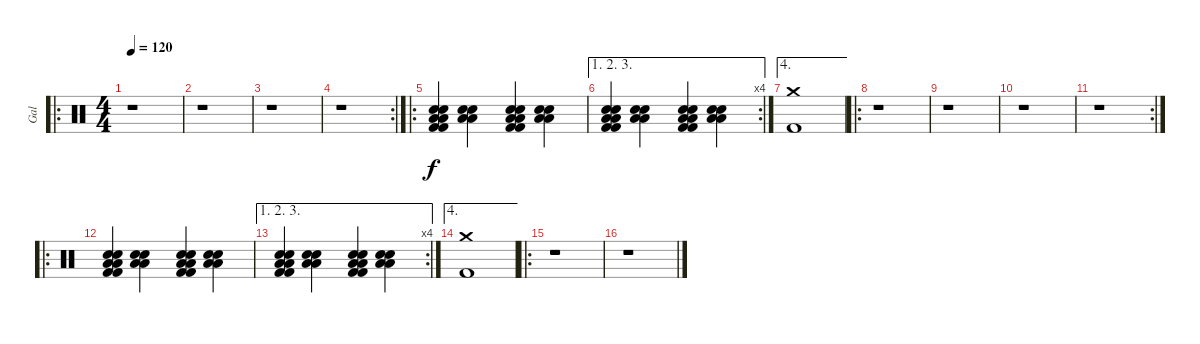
\track ("Gal" "Gal") {instrument percussion}
\staff {score}
\articulation defaults
\ro
\ts (4 4)
\tempo 120
\clef neutral
\ks c
r.1{dy f} |
r.1 |
r.1 |
\rc 2
r.1 |
\ro
("Low Floor Tom (hit)" "Low Floor Tom (hit)" "Snare (hit) 2" "Snare (hit) 2" "Kick (hit) 2" "Kick (hit) 2").4 ("Low Floor Tom (hit)" "Low Floor Tom (hit)" "Snare (hit) 2" "Snare (hit) 2").4 ("Low Floor Tom (hit)" "Low Floor Tom (hit)" "Snare (hit) 2" "Snare (hit) 2" "Kick (hit) 2" "Kick (hit) 2").4 ("Low Floor Tom (hit)" "Low Floor Tom (hit)" "Snare (hit) 2" "Snare (hit) 2").4 |
\ae (1 2 3)
\rc 4
("Low Floor Tom (hit)" "Low Floor Tom (hit)" "Snare (hit) 2" "Snare (hit) 2" "Kick (hit) 2" "Kick (hit) 2").4 ("Low Floor Tom (hit)" "Low Floor Tom (hit)" "Snare (hit) 2" "Snare (hit) 2").4 ("Low Floor Tom (hit)" "Low Floor Tom (hit)" "Snare (hit) 2" "Snare (hit) 2" "Kick (hit) 2" "Kick (hit) 2").4 ("Low Floor Tom (hit)" "Low Floor Tom (hit)" "Snare (hit) 2" "Snare (hit) 2").4 |
\ae 4
("Crash medium (hit)" "Kick (hit) 2").1 |
\ro
r.1 |
r.1 |
r.1 |
\rc 2
r.1 |
\ro
("Low Floor Tom (hit)" "Low Floor Tom (hit)" "Snare (hit) 2" "Snare (hit) 2" "Kick (hit) 2" "Kick (hit) 2").4 ("Low Floor Tom (hit)" "Low Floor Tom (hit)" "Snare (hit) 2" "Snare (hit) 2").4 ("Low Floor Tom (hit)" "Low Floor Tom (hit)" "Snare (hit) 2" "Snare (hit) 2" "Kick (hit) 2" "Kick (hit) 2").4 ("Low Floor Tom (hit)" "Low Floor Tom (hit)" "Snare (hit) 2" "Snare (hit) 2").4 |
\ae (1 2 3)
\rc 4
("Low Floor Tom (hit)" "Low Floor Tom (hit)" "Snare (hit) 2" "Snare (hit) 2" "Kick (hit) 2" "Kick (hit) 2").4 ("Low Floor Tom (hit)" "Low Floor Tom (hit)" "Snare (hit) 2" "Snare (hit) 2").4 ("Low Floor Tom (hit)" "Low Floor Tom (hit)" "Snare (hit) 2" "Snare (hit) 2" "Kick (hit) 2" "Kick (hit) 2").4 ("Low Floor Tom (hit)" "Low Floor Tom (hit)" "Snare (hit) 2" "Snare (hit) 2").4 |
\ae 4
("Crash medium (hit)" "Kick (hit) 2").1 |
\ro
r.1 |
r.1
